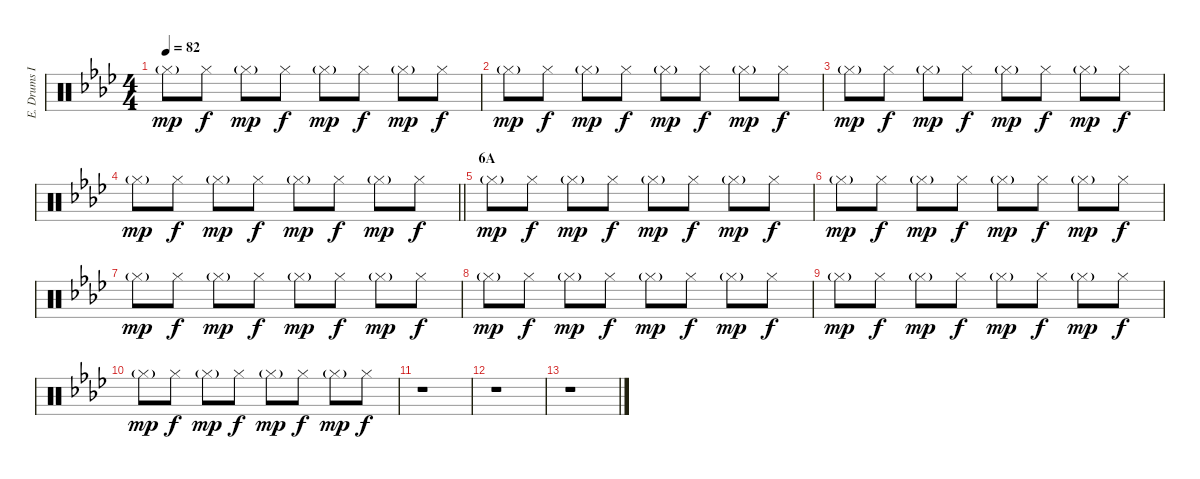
\track ("E. Drums II" "E. Drums I") {instrument percussion}
\staff {score}
\articulation defaults
\ts (4 4)
\tempo 82
\clef neutral
\ks ab "Hi-Hat (closed)"{g}.8{dy mp} "Hi-Hat (closed)".8{dy f} "Hi-Hat (closed)"{g}.8{dy mp} "Hi-Hat (closed)".8{dy f} "Hi-Hat (closed)"{g}.8{dy mp} "Hi-Hat (closed)".8{dy f} "Hi-Hat (closed)"{g}.8{dy mp} "Hi-Hat (closed)".8{dy f}
|
"Hi-Hat (closed)"{g}.8{dy mp} "Hi-Hat (closed)".8{dy f} "Hi-Hat (closed)"{g}.8{dy mp} "Hi-Hat (closed)".8{dy f} "Hi-Hat (closed)"{g}.8{dy mp} "Hi-Hat (closed)".8{dy f} "Hi-Hat (closed)"{g}.8{dy mp} "Hi-Hat (closed)".8{dy f} |
"Hi-Hat (closed)"{g}.8{dy mp} "Hi-Hat (closed)".8{dy f} "Hi-Hat (closed)"{g}.8{dy mp} "Hi-Hat (closed)".8{dy f} "Hi-Hat (closed)"{g}.8{dy mp} "Hi-Hat (closed)".8{dy f} "Hi-Hat (closed)"{g}.8{dy mp} "Hi-Hat (closed)".8{dy f} |
\barLineRight lightlight "Hi-Hat (closed)"{g}.8{dy mp} "Hi-Hat (closed)".8{dy f} "Hi-Hat (closed)"{g}.8{dy mp} "Hi-Hat (closed)".8{dy f} "Hi-Hat (closed)"{g}.8{dy mp} "Hi-Hat (closed)".8{dy f} "Hi-Hat (closed)"{g}.8{dy mp} "Hi-Hat (closed)".8{dy f}
|
\section ("" "6A")
"Hi-Hat (closed)"{g}.8{dy mp} "Hi-Hat (closed)".8{dy f} "Hi-Hat (closed)"{g}.8{dy mp} "Hi-Hat (closed)".8{dy f} "Hi-Hat (closed)"{g}.8{dy mp} "Hi-Hat (closed)".8{dy f} "Hi-Hat (closed)"{g}.8{dy mp} "Hi-Hat (closed)".8{dy f} |
"Hi-Hat (closed)"{g}.8{dy mp} "Hi-Hat (closed)".8{dy f} "Hi-Hat (closed)"{g}.8{dy mp} "Hi-Hat (closed)".8{dy f} "Hi-Hat (closed)"{g}.8{dy mp} "Hi-Hat (closed)".8{dy f} "Hi-Hat (closed)"{g}.8{dy mp} "Hi-Hat (closed)".8{dy f} |
"Hi-Hat (closed)"{g}.8{dy mp} "Hi-Hat (closed)".8{dy f} "Hi-Hat (closed)"{g}.8{dy mp} "Hi-Hat (closed)".8{dy f} "Hi-Hat (closed)"{g}.8{dy mp} "Hi-Hat (closed)".8{dy f} "Hi-Hat (closed)"{g}.8{dy mp} "Hi-Hat (closed)".8{dy f} |
"Hi-Hat (closed)"{g}.8{dy mp} "Hi-Hat (closed)".8{dy f} "Hi-Hat (closed)"{g}.8{dy mp} "Hi-Hat (closed)".8{dy f} "Hi-Hat (closed)"{g}.8{dy mp} "Hi-Hat (closed)".8{dy f} "Hi-Hat (closed)"{g}.8{dy mp} "Hi-Hat (closed)".8{dy f} |
"Hi-Hat (closed)"{g}.8{dy mp} "Hi-Hat (closed)".8{dy f} "Hi-Hat (closed)"{g}.8{dy mp} "Hi-Hat (closed)".8{dy f} "Hi-Hat (closed)"{g}.8{dy mp} "Hi-Hat (closed)".8{dy f} "Hi-Hat (closed)"{g}.8{dy mp} "Hi-Hat (closed)".8{dy f} |
"Hi-Hat (closed)"{g}.8{dy mp} "Hi-Hat (closed)".8{dy f} "Hi-Hat (closed)"{g}.8{dy mp} "Hi-Hat (closed)".8{dy f} "Hi-Hat (closed)"{g}.8{dy mp} "Hi-Hat (closed)".8{dy f} "Hi-Hat (closed)"{g}.8{dy mp} "Hi-Hat (closed)".8{dy f} |
r.1 |
r.1 |
r.1
